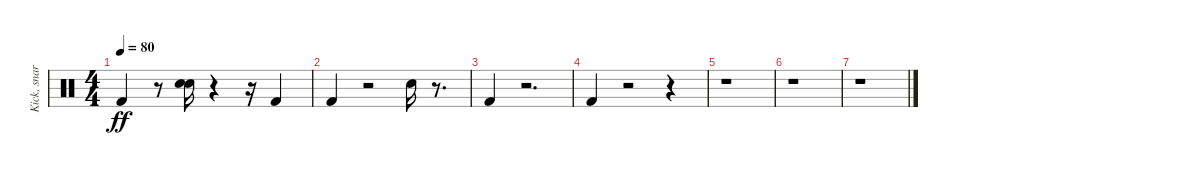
\track ("Kick, snare" "Kick, snar") {instrument percussion}
\staff {score}
\articulation defaults
\ts (4 4)
\tempo 80
\clef neutral
\ks c "Kick (hit) 2".4{dy ff}
r.8 ("Snare (hit) 2" "Snare (hit) 2").16 r.4 r.16 "Kick (hit) 2".4 |
"Kick (hit) 2".4 r.2 "Snare (hit) 2".16 r.8{d} |
"Kick (hit) 2".4 r.2{d} |
"Kick (hit) 2".4 r.2 r.4 |
r.1 |
r.1 |
r.1
